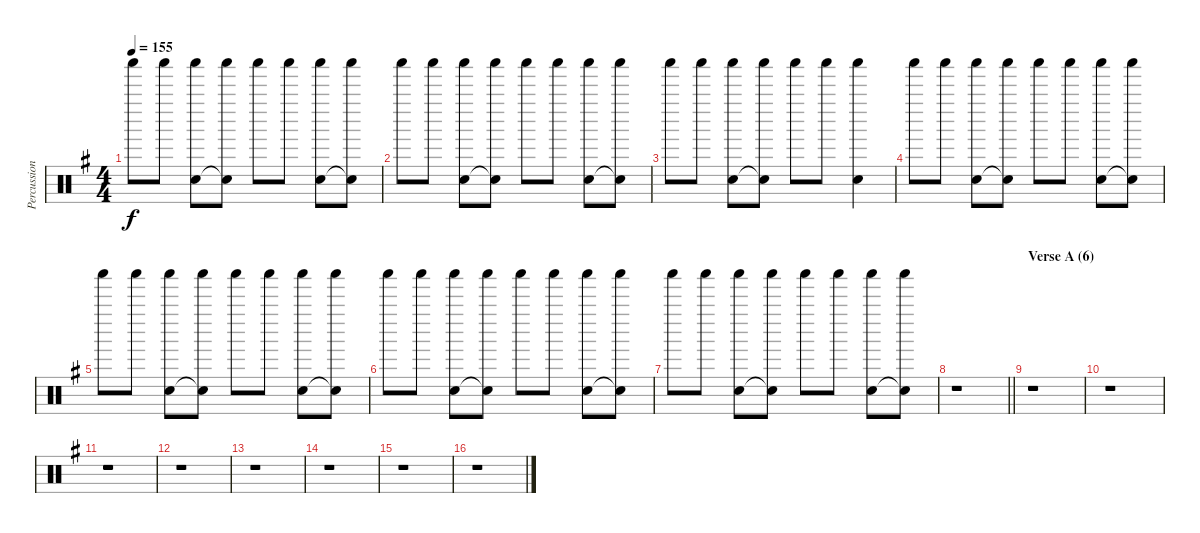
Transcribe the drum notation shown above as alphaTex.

\track ("Percussion" "Percussion") {instrument percussion}
\staff {score}
\articulation defaults
\ts (4 4)
\tempo 155
\clef neutral
\ks eminor "Shaker (hit)".8{dy f} "Shaker (hit)".8
("Hand Clap (hit)" "Shaker (hit)").8 ("Snare (hit)"{t} "Shaker (hit)").8 "Shaker (hit)".8 "Shaker (hit)".8 ("Hand Clap (hit)" "Shaker (hit)").8 ("Snare (hit)"{t} "Shaker (hit)").8 |
"Shaker (hit)".8 "Shaker (hit)".8 ("Hand Clap (hit)" "Shaker (hit)").8 ("Snare (hit)"{t} "Shaker (hit)").8 "Shaker (hit)".8 "Shaker (hit)".8 ("Hand Clap (hit)" "Shaker (hit)").8 ("Snare (hit)"{t} "Shaker (hit)").8 |
"Shaker (hit)".8 "Shaker (hit)".8 ("Hand Clap (hit)" "Shaker (hit)").8 ("Snare (hit)"{t} "Shaker (hit)").8 "Shaker (hit)".8 "Shaker (hit)".8 ("Hand Clap (hit)" "Shaker (hit)").4 |
"Shaker (hit)".8 "Shaker (hit)".8 ("Hand Clap (hit)" "Shaker (hit)").8 ("Snare (hit)"{t} "Shaker (hit)").8 "Shaker (hit)".8 "Shaker (hit)".8 ("Hand Clap (hit)" "Shaker (hit)").8 ("Snare (hit)"{t} "Shaker (hit)").8 |
"Shaker (hit)".8 "Shaker (hit)".8 ("Hand Clap (hit)" "Shaker (hit)").8 ("Snare (hit)"{t} "Shaker (hit)").8 "Shaker (hit)".8 "Shaker (hit)".8 ("Hand Clap (hit)" "Shaker (hit)").8 ("Snare (hit)"{t} "Shaker (hit)").8 |
"Shaker (hit)".8 "Shaker (hit)".8 ("Hand Clap (hit)" "Shaker (hit)").8 ("Snare (hit)"{t} "Shaker (hit)").8 "Shaker (hit)".8 "Shaker (hit)".8 ("Hand Clap (hit)" "Shaker (hit)").8 ("Snare (hit)"{t} "Shaker (hit)").8 |
"Shaker (hit)".8 "Shaker (hit)".8 ("Hand Clap (hit)" "Shaker (hit)").8 ("Snare (hit)"{t} "Shaker (hit)").8 "Shaker (hit)".8 "Shaker (hit)".8 ("Hand Clap (hit)" "Shaker (hit)").8 ("Snare (hit)"{t} "Shaker (hit)").8 |
\barLineRight lightlight
r.1 |
\section ("" "Verse A (6)")
r.1 |
r.1 |
r.1 |
r.1 |
r.1 |
r.1 |
r.1 |
r.1
